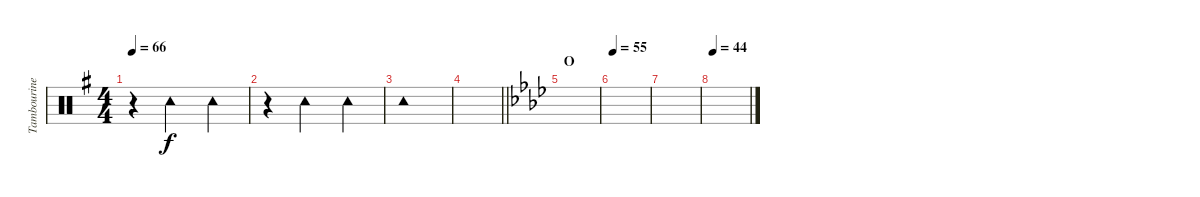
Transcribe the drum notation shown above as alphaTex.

\track ("Tambourine: Ray Copoper" "Tambourine") {instrument percussion}
\staff {score}
\articulation defaults
\ts (4 4)
\tempo 66
\clef neutral
\ks g
r.4{dy f} "Tambourine (hit)".2 "Tambourine (hit)".4 |
r.4 "Tambourine (hit)".2 "Tambourine (hit)".4 |
"Tambourine (hit)".1 |
\barLineRight lightlight
|
\section ("" "O")
\ks ab
|
\tempo 55
|
|
\tempo 44
